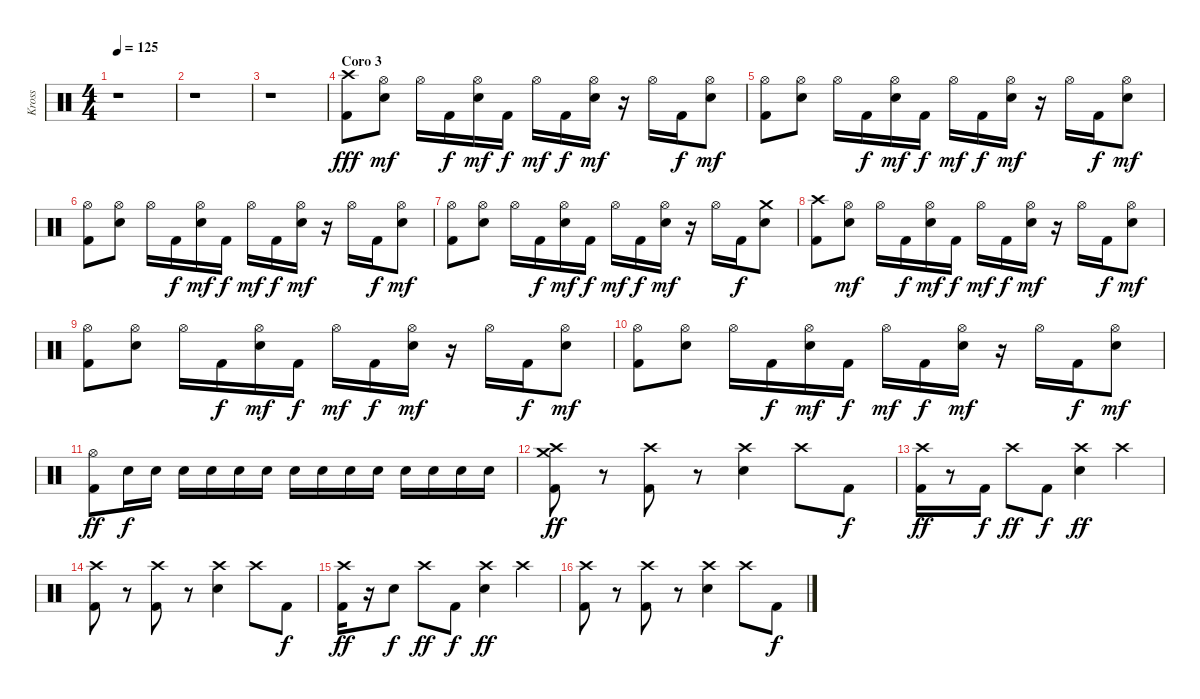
\track ("Kross" "Kross") {instrument percussion}
\staff {score}
\articulation defaults
\ts (4 4)
\tempo 125
\clef neutral
\ks c
r.1{dy fff} |
r.1 |
r.1 |
\section ("" "Coro 3")
("Crash high (hit)" "Kick (hit) 2").8 ("Hi-Hat (open)" "Electric Snare (hit)").8{dy mf} "Hi-Hat (open)".16 "Kick (hit) 2".16{dy f} ("Hi-Hat (open)" "Electric Snare (hit)").16{dy mf} "Kick (hit) 2".16{dy f} "Hi-Hat (open)".16{dy mf} "Kick (hit) 2".16{dy f} ("Hi-Hat (open)" "Electric Snare (hit)").16{dy mf} r.16 "Hi-Hat (open)".16 "Kick (hit) 2".16{dy f} ("Hi-Hat (open)" "Electric Snare (hit)").8{dy mf} |
("Hi-Hat (open)" "Kick (hit) 2").8 ("Hi-Hat (open)" "Electric Snare (hit)").8 "Hi-Hat (open)".16 "Kick (hit) 2".16{dy f} ("Hi-Hat (open)" "Electric Snare (hit)").16{dy mf} "Kick (hit) 2".16{dy f} "Hi-Hat (open)".16{dy mf} "Kick (hit) 2".16{dy f} ("Hi-Hat (open)" "Electric Snare (hit)").16{dy mf} r.16 "Hi-Hat (open)".16 "Kick (hit) 2".16{dy f} ("Hi-Hat (open)" "Electric Snare (hit)").8{dy mf} |
("Hi-Hat (open)" "Kick (hit) 2").8 ("Hi-Hat (open)" "Electric Snare (hit)").8 "Hi-Hat (open)".16 "Kick (hit) 2".16{dy f} ("Hi-Hat (open)" "Electric Snare (hit)").16{dy mf} "Kick (hit) 2".16{dy f} "Hi-Hat (open)".16{dy mf} "Kick (hit) 2".16{dy f} ("Hi-Hat (open)" "Electric Snare (hit)").16{dy mf} r.16 "Hi-Hat (open)".16 "Kick (hit) 2".16{dy f} ("Hi-Hat (open)" "Electric Snare (hit)").8{dy mf} |
("Hi-Hat (open)" "Kick (hit) 2").8 ("Hi-Hat (open)" "Electric Snare (hit)").8 "Hi-Hat (open)".16 "Kick (hit) 2".16{dy f} ("Hi-Hat (open)" "Electric Snare (hit)").16{dy mf} "Kick (hit) 2".16{dy f} "Hi-Hat (open)".16{dy mf} "Kick (hit) 2".16{dy f} ("Hi-Hat (open)" "Electric Snare (hit)").16{dy mf} r.16 "Hi-Hat (open)".16 "Kick (hit) 2".16{dy f} ("Crash medium (hit)" "Electric Snare (hit)").8 |
("Crash high (hit)" "Kick (hit) 2").8 ("Hi-Hat (open)" "Electric Snare (hit)").8{dy mf} "Hi-Hat (open)".16 "Kick (hit) 2".16{dy f} ("Hi-Hat (open)" "Electric Snare (hit)").16{dy mf} "Kick (hit) 2".16{dy f} "Hi-Hat (open)".16{dy mf} "Kick (hit) 2".16{dy f} ("Hi-Hat (open)" "Electric Snare (hit)").16{dy mf} r.16 "Hi-Hat (open)".16 "Kick (hit) 2".16{dy f} ("Hi-Hat (open)" "Electric Snare (hit)").8{dy mf} |
("Hi-Hat (open)" "Kick (hit) 2").8 ("Hi-Hat (open)" "Electric Snare (hit)").8 "Hi-Hat (open)".16 "Kick (hit) 2".16{dy f} ("Hi-Hat (open)" "Electric Snare (hit)").16{dy mf} "Kick (hit) 2".16{dy f} "Hi-Hat (open)".16{dy mf} "Kick (hit) 2".16{dy f} ("Hi-Hat (open)" "Electric Snare (hit)").16{dy mf} r.16 "Hi-Hat (open)".16 "Kick (hit) 2".16{dy f} ("Hi-Hat (open)" "Electric Snare (hit)").8{dy mf} |
("Hi-Hat (open)" "Kick (hit) 2").8 ("Hi-Hat (open)" "Electric Snare (hit)").8 "Hi-Hat (open)".16 "Kick (hit) 2".16{dy f} ("Hi-Hat (open)" "Electric Snare (hit)").16{dy mf} "Kick (hit) 2".16{dy f} "Hi-Hat (open)".16{dy mf} "Kick (hit) 2".16{dy f} ("Hi-Hat (open)" "Electric Snare (hit)").16{dy mf} r.16 "Hi-Hat (open)".16 "Kick (hit) 2".16{dy f} ("Hi-Hat (open)" "Electric Snare (hit)").8{dy mf} |
("Hi-Hat (open)" "Kick (hit) 2").8{dy ff} "Electric Snare (hit)".16{dy f} "Electric Snare (hit)".16 "Electric Snare (hit)".16 "Electric Snare (hit)".16 "Electric Snare (hit)".16 "Electric Snare (hit)".16 "Electric Snare (hit)".16 "Electric Snare (hit)".16 "Electric Snare (hit)".16 "Electric Snare (hit)".16 "Electric Snare (hit)".16 "Electric Snare (hit)".16 "Electric Snare (hit)".16 "Electric Snare (hit)".16 |
("Crash high (hit)" "Crash medium (hit)" "Kick (hit) 2").8{dy ff} r.8 ("Crash high (hit)" "Kick (hit) 2").8 r.8 ("Crash high (hit)" "Electric Snare (hit)").4 "Crash high (hit)".8 "Kick (hit) 2".8{dy f} |
("Crash high (hit)" "Kick (hit) 2").16{dy ff} r.8 "Kick (hit) 2".16{dy f} "Crash high (hit)".8{dy ff} "Kick (hit) 2".8{dy f} ("Crash high (hit)" "Electric Snare (hit)").4{dy ff} "Crash high (hit)".4 |
("Crash high (hit)" "Kick (hit) 2").8 r.8 ("Crash high (hit)" "Kick (hit) 2").8 r.8 ("Crash high (hit)" "Electric Snare (hit)").4 "Crash high (hit)".8 "Kick (hit) 2".8{dy f} |
("Crash high (hit)" "Kick (hit) 2").16{dy ff} r.16 "Electric Snare (hit)".8{dy f} "Crash high (hit)".8{dy ff} "Kick (hit) 2".8{dy f} ("Crash high (hit)" "Electric Snare (hit)").4{dy ff} "Crash high (hit)".4 |
("Crash high (hit)" "Kick (hit) 2").8 r.8 ("Crash high (hit)" "Kick (hit) 2").8 r.8 ("Crash high (hit)" "Electric Snare (hit)").4 "Crash high (hit)".8 "Kick (hit) 2".8{dy f}
